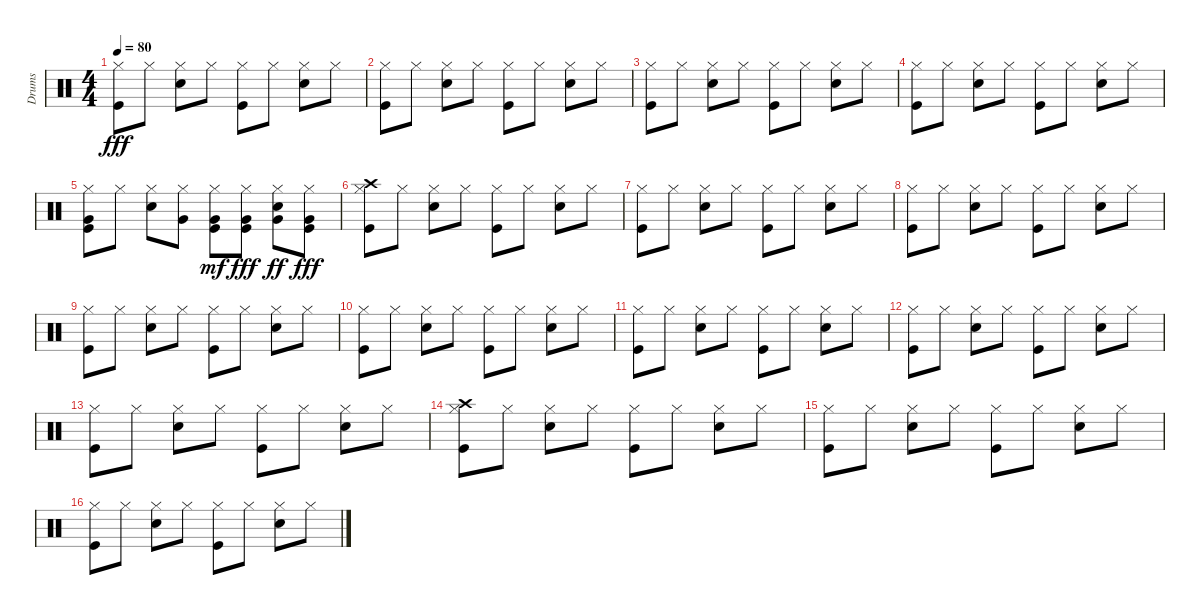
\track ("Drums" "Drums") {instrument percussion}
\staff {score}
\articulation defaults
\ts (4 4)
\tempo 80
\clef neutral
\ks c
("Hi-Hat (closed)" "Kick (hit)").8{dy fff} "Hi-Hat (closed)".8 ("Hi-Hat (closed)" "Snare (hit) 2").8 "Hi-Hat (closed)".8 ("Hi-Hat (closed)" "Kick (hit)").8 "Hi-Hat (closed)".8 ("Hi-Hat (closed)" "Snare (hit) 2").8 "Hi-Hat (closed)".8 |
("Hi-Hat (closed)" "Kick (hit)").8 "Hi-Hat (closed)".8 ("Hi-Hat (closed)" "Snare (hit) 2").8 "Hi-Hat (closed)".8 ("Hi-Hat (closed)" "Kick (hit)").8 "Hi-Hat (closed)".8 ("Hi-Hat (closed)" "Snare (hit) 2").8 "Hi-Hat (closed)".8 |
("Hi-Hat (closed)" "Kick (hit)").8 "Hi-Hat (closed)".8 ("Hi-Hat (closed)" "Snare (hit) 2").8 "Hi-Hat (closed)".8 ("Hi-Hat (closed)" "Kick (hit)").8 "Hi-Hat (closed)".8 ("Hi-Hat (closed)" "Snare (hit) 2").8 "Hi-Hat (closed)".8 |
("Hi-Hat (closed)" "Kick (hit)").8 "Hi-Hat (closed)".8 ("Hi-Hat (closed)" "Snare (hit) 2").8 "Hi-Hat (closed)".8 ("Hi-Hat (closed)" "Kick (hit)").8 "Hi-Hat (closed)".8 ("Hi-Hat (closed)" "Snare (hit) 2").8 "Hi-Hat (closed)".8 |
("Hi-Hat (closed)" "Kick (hit)" "Very Low Tom (hit)").8 "Hi-Hat (closed)".8 ("Hi-Hat (closed)" "Snare (hit) 2").8 ("Hi-Hat (closed)" "Very Low Tom (hit)").8 ("Hi-Hat (closed)" "Kick (hit)" "Very Low Tom (hit)").8{dy mf} ("Hi-Hat (closed)" "Kick (hit)" "Very Low Tom (hit)").8{dy fff} ("Hi-Hat (closed)" "Snare (hit) 2" "Very Low Tom (hit)").8{dy ff} ("Hi-Hat (closed)" "Kick (hit)" "Very Low Tom (hit)").8{dy fff} |
("Hi-Hat (closed)" "Kick (hit)" "Crash high (hit)").8 "Hi-Hat (closed)".8 ("Hi-Hat (closed)" "Snare (hit) 2").8 "Hi-Hat (closed)".8 ("Hi-Hat (closed)" "Kick (hit)").8 "Hi-Hat (closed)".8 ("Hi-Hat (closed)" "Snare (hit) 2").8 "Hi-Hat (closed)".8 |
("Hi-Hat (closed)" "Kick (hit)").8 "Hi-Hat (closed)".8 ("Hi-Hat (closed)" "Snare (hit) 2").8 "Hi-Hat (closed)".8 ("Hi-Hat (closed)" "Kick (hit)").8 "Hi-Hat (closed)".8 ("Hi-Hat (closed)" "Snare (hit) 2").8 "Hi-Hat (closed)".8 |
("Hi-Hat (closed)" "Kick (hit)").8 "Hi-Hat (closed)".8 ("Hi-Hat (closed)" "Snare (hit) 2").8 "Hi-Hat (closed)".8 ("Hi-Hat (closed)" "Kick (hit)").8 "Hi-Hat (closed)".8 ("Hi-Hat (closed)" "Snare (hit) 2").8 "Hi-Hat (closed)".8 |
("Hi-Hat (closed)" "Kick (hit)").8 "Hi-Hat (closed)".8 ("Hi-Hat (closed)" "Snare (hit) 2").8 "Hi-Hat (closed)".8 ("Hi-Hat (closed)" "Kick (hit)").8 "Hi-Hat (closed)".8 ("Hi-Hat (closed)" "Snare (hit) 2").8 "Hi-Hat (closed)".8 |
("Hi-Hat (closed)" "Kick (hit)").8 "Hi-Hat (closed)".8 ("Hi-Hat (closed)" "Snare (hit) 2").8 "Hi-Hat (closed)".8 ("Hi-Hat (closed)" "Kick (hit)").8 "Hi-Hat (closed)".8 ("Hi-Hat (closed)" "Snare (hit) 2").8 "Hi-Hat (closed)".8 |
("Hi-Hat (closed)" "Kick (hit)").8 "Hi-Hat (closed)".8 ("Hi-Hat (closed)" "Snare (hit) 2").8 "Hi-Hat (closed)".8 ("Hi-Hat (closed)" "Kick (hit)").8 "Hi-Hat (closed)".8 ("Hi-Hat (closed)" "Snare (hit) 2").8 "Hi-Hat (closed)".8 |
("Hi-Hat (closed)" "Kick (hit)").8 "Hi-Hat (closed)".8 ("Hi-Hat (closed)" "Snare (hit) 2").8 "Hi-Hat (closed)".8 ("Hi-Hat (closed)" "Kick (hit)").8 "Hi-Hat (closed)".8 ("Hi-Hat (closed)" "Snare (hit) 2").8 "Hi-Hat (closed)".8 |
("Hi-Hat (closed)" "Kick (hit)").8 "Hi-Hat (closed)".8 ("Hi-Hat (closed)" "Snare (hit) 2").8 "Hi-Hat (closed)".8 ("Hi-Hat (closed)" "Kick (hit)").8 "Hi-Hat (closed)".8 ("Hi-Hat (closed)" "Snare (hit) 2").8 "Hi-Hat (closed)".8 |
("Hi-Hat (closed)" "Kick (hit)" "Crash high (hit)").8 "Hi-Hat (closed)".8 ("Hi-Hat (closed)" "Snare (hit) 2").8 "Hi-Hat (closed)".8 ("Hi-Hat (closed)" "Kick (hit)").8 "Hi-Hat (closed)".8 ("Hi-Hat (closed)" "Snare (hit) 2").8 "Hi-Hat (closed)".8 |
("Hi-Hat (closed)" "Kick (hit)").8 "Hi-Hat (closed)".8 ("Hi-Hat (closed)" "Snare (hit) 2").8 "Hi-Hat (closed)".8 ("Hi-Hat (closed)" "Kick (hit)").8 "Hi-Hat (closed)".8 ("Hi-Hat (closed)" "Snare (hit) 2").8 "Hi-Hat (closed)".8 |
("Hi-Hat (closed)" "Kick (hit)").8 "Hi-Hat (closed)".8 ("Hi-Hat (closed)" "Snare (hit) 2").8 "Hi-Hat (closed)".8 ("Hi-Hat (closed)" "Kick (hit)").8 "Hi-Hat (closed)".8 ("Hi-Hat (closed)" "Snare (hit) 2").8 "Hi-Hat (closed)".8
